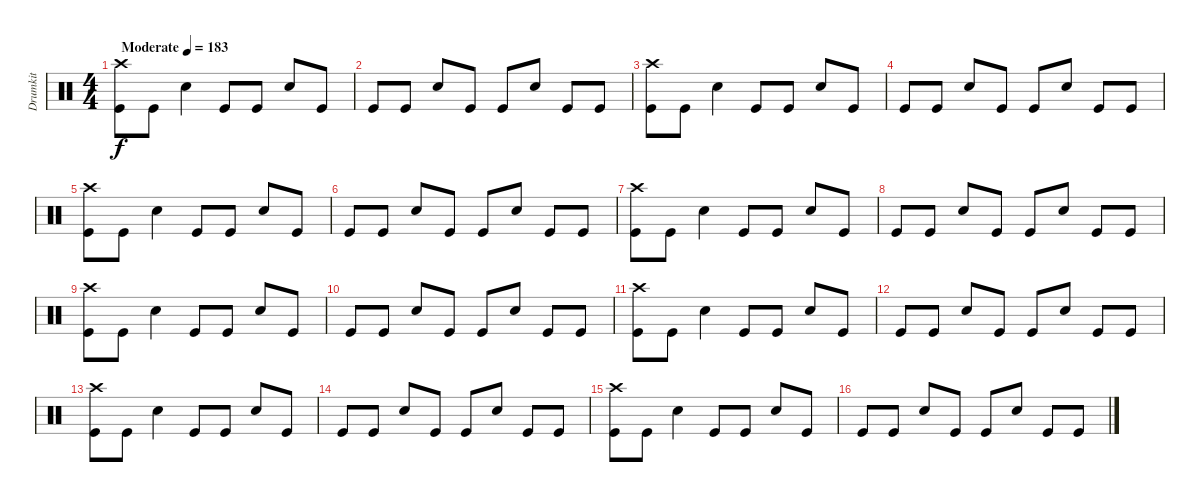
\track ("Drumkit" "Drumkit") {instrument percussion}
\staff {score}
\articulation defaults
\ts (4 4)
\tempo (183 "Moderate")
\clef neutral
\ks c
("Crash high (hit)" "Kick (hit)").8{dy f} "Kick (hit)".8 "Snare (hit) 2".4 "Kick (hit)".8 "Kick (hit)".8 "Snare (hit) 2".8 "Kick (hit)".8 |
"Kick (hit)".8 "Kick (hit)".8 "Snare (hit) 2".8 "Kick (hit)".8 "Kick (hit)".8 "Snare (hit) 2".8 "Kick (hit)".8 "Kick (hit)".8 |
("Crash high (hit)" "Kick (hit)").8 "Kick (hit)".8 "Snare (hit) 2".4 "Kick (hit)".8 "Kick (hit)".8 "Snare (hit) 2".8 "Kick (hit)".8 |
"Kick (hit)".8 "Kick (hit)".8 "Snare (hit) 2".8 "Kick (hit)".8 "Kick (hit)".8 "Snare (hit) 2".8 "Kick (hit)".8 "Kick (hit)".8 |
("Crash high (hit)" "Kick (hit)").8 "Kick (hit)".8 "Snare (hit) 2".4 "Kick (hit)".8 "Kick (hit)".8 "Snare (hit) 2".8 "Kick (hit)".8 |
"Kick (hit)".8 "Kick (hit)".8 "Snare (hit) 2".8 "Kick (hit)".8 "Kick (hit)".8 "Snare (hit) 2".8 "Kick (hit)".8 "Kick (hit)".8 |
("Crash high (hit)" "Kick (hit)").8 "Kick (hit)".8 "Snare (hit) 2".4 "Kick (hit)".8 "Kick (hit)".8 "Snare (hit) 2".8 "Kick (hit)".8 |
"Kick (hit)".8 "Kick (hit)".8 "Snare (hit) 2".8 "Kick (hit)".8 "Kick (hit)".8 "Snare (hit) 2".8 "Kick (hit)".8 "Kick (hit)".8 |
("Crash high (hit)" "Kick (hit)").8 "Kick (hit)".8 "Snare (hit) 2".4 "Kick (hit)".8 "Kick (hit)".8 "Snare (hit) 2".8 "Kick (hit)".8 |
"Kick (hit)".8 "Kick (hit)".8 "Snare (hit) 2".8 "Kick (hit)".8 "Kick (hit)".8 "Snare (hit) 2".8 "Kick (hit)".8 "Kick (hit)".8 |
("Crash high (hit)" "Kick (hit)").8 "Kick (hit)".8 "Snare (hit) 2".4 "Kick (hit)".8 "Kick (hit)".8 "Snare (hit) 2".8 "Kick (hit)".8 |
"Kick (hit)".8 "Kick (hit)".8 "Snare (hit) 2".8 "Kick (hit)".8 "Kick (hit)".8 "Snare (hit) 2".8 "Kick (hit)".8 "Kick (hit)".8 |
("Crash high (hit)" "Kick (hit)").8 "Kick (hit)".8 "Snare (hit) 2".4 "Kick (hit)".8 "Kick (hit)".8 "Snare (hit) 2".8 "Kick (hit)".8 |
"Kick (hit)".8 "Kick (hit)".8 "Snare (hit) 2".8 "Kick (hit)".8 "Kick (hit)".8 "Snare (hit) 2".8 "Kick (hit)".8 "Kick (hit)".8 |
("Crash high (hit)" "Kick (hit)").8 "Kick (hit)".8 "Snare (hit) 2".4 "Kick (hit)".8 "Kick (hit)".8 "Snare (hit) 2".8 "Kick (hit)".8 |
"Kick (hit)".8 "Kick (hit)".8 "Snare (hit) 2".8 "Kick (hit)".8 "Kick (hit)".8 "Snare (hit) 2".8 "Kick (hit)".8 "Kick (hit)".8
